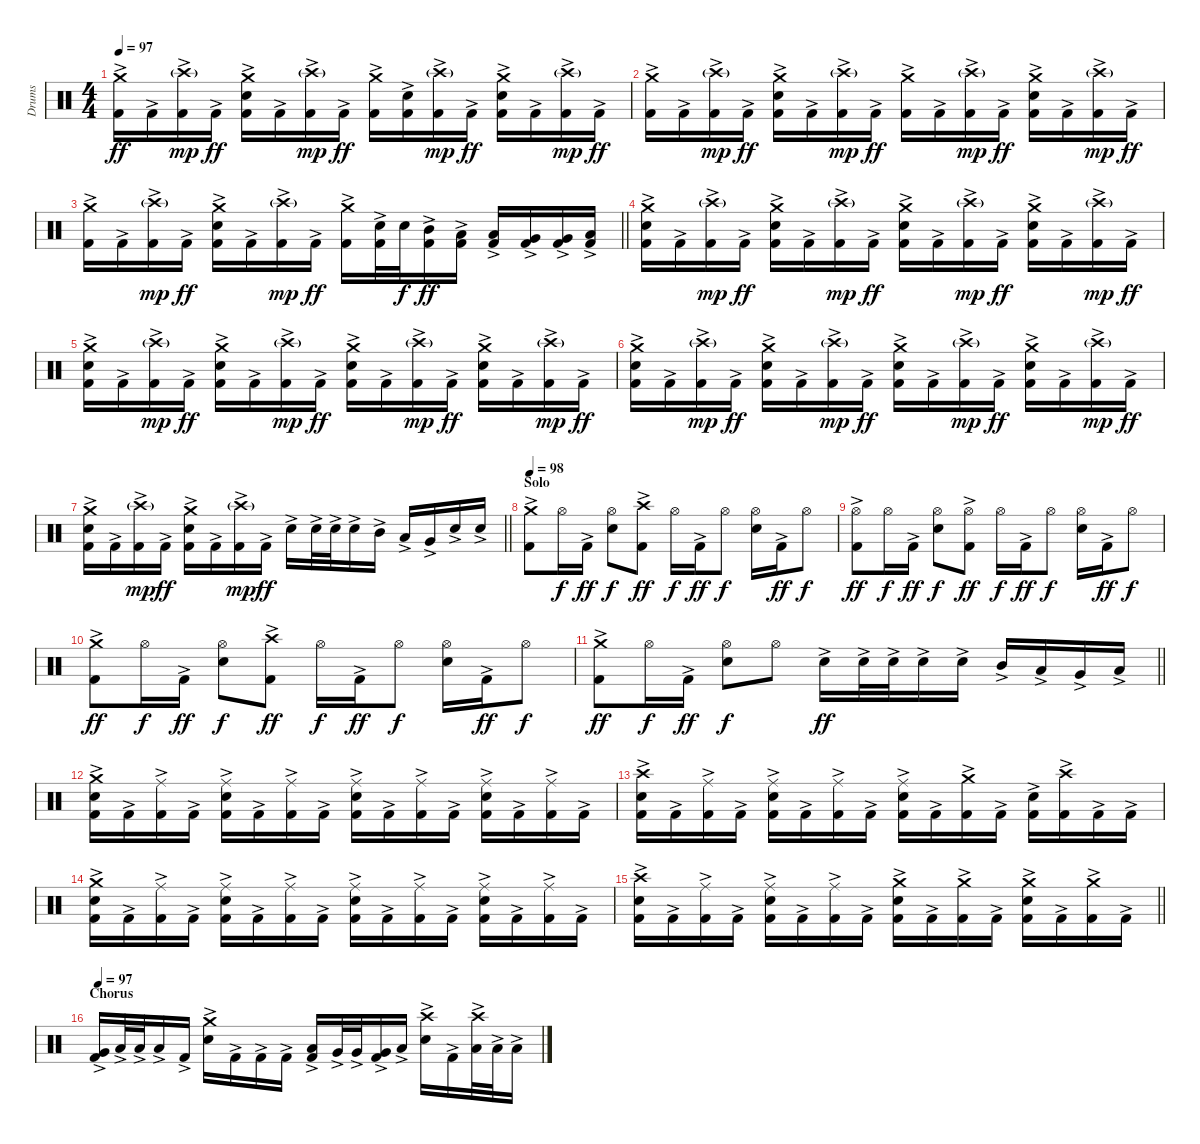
\track ("Drums" "Drums") {instrument percussion}
\staff {score}
\articulation defaults
\ts (4 4)
\tempo 97
\clef neutral
\ks c
("Kick (hit) 2"{ac} "Crash medium (hit)").16{dy ff} "Kick (hit) 2"{ac}.16 ("Kick (hit) 2"{ac} "Crash high (hit)"{g}).16{dy mp} "Kick (hit) 2"{ac}.16{dy ff} ("Kick (hit) 2"{ac} "Snare (hit) 2" "Crash medium (hit)").16 "Kick (hit) 2"{ac}.16 ("Kick (hit) 2"{ac} "Crash high (hit)"{g}).16{dy mp} "Kick (hit) 2"{ac}.16{dy ff} ("Kick (hit) 2"{ac} "Crash medium (hit)").16 ("Kick (hit) 2"{ac} "Snare (hit) 2").16 ("Kick (hit) 2"{ac} "Crash high (hit)"{g}).16{dy mp} "Kick (hit) 2"{ac}.16{dy ff} ("Kick (hit) 2"{ac} "Snare (hit) 2" "Crash medium (hit)").16 "Kick (hit) 2"{ac}.16 ("Kick (hit) 2"{ac} "Crash high (hit)"{g}).16{dy mp} "Kick (hit) 2"{ac}.16{dy ff} |
("Kick (hit) 2"{ac} "Crash medium (hit)").16 "Kick (hit) 2"{ac}.16 ("Kick (hit) 2"{ac} "Crash high (hit)"{g}).16{dy mp} "Kick (hit) 2"{ac}.16{dy ff} ("Kick (hit) 2"{ac} "Snare (hit) 2" "Crash medium (hit)").16 "Kick (hit) 2"{ac}.16 ("Kick (hit) 2"{ac} "Crash high (hit)"{g}).16{dy mp} "Kick (hit) 2"{ac}.16{dy ff} ("Kick (hit) 2"{ac} "Crash medium (hit)").16 "Kick (hit) 2"{ac}.16 ("Kick (hit) 2"{ac} "Crash high (hit)"{g}).16{dy mp} "Kick (hit) 2"{ac}.16{dy ff} ("Kick (hit) 2"{ac} "Snare (hit) 2" "Crash medium (hit)").16 "Kick (hit) 2"{ac}.16 ("Kick (hit) 2"{ac} "Crash high (hit)"{g}).16{dy mp} "Kick (hit) 2"{ac}.16{dy ff} |
\barLineRight lightlight
("Kick (hit) 2"{ac} "Crash medium (hit)").16 "Kick (hit) 2"{ac}.16 ("Kick (hit) 2"{ac} "Crash high (hit)"{g}).16{dy mp} "Kick (hit) 2"{ac}.16{dy ff} ("Kick (hit) 2"{ac} "Snare (hit) 2" "Crash medium (hit)").16 "Kick (hit) 2"{ac}.16 ("Kick (hit) 2"{ac} "Crash high (hit)"{g}).16{dy mp} "Kick (hit) 2"{ac}.16{dy ff} ("Kick (hit) 2"{ac} "Crash medium (hit)").16 ("Kick (hit) 2"{ac} "Snare (hit) 2").32 "Snare (hit) 2".32{dy f} ("Kick (hit) 2"{ac} "Mid Tom (hit)").16{dy ff} ("Kick (hit) 2"{ac} "Low Tom (hit)").16 ("Kick (hit) 2"{ac} "Low Tom (hit)").16 ("Kick (hit) 2"{ac} "Very Low Tom (hit)").16 ("Kick (hit) 2"{ac} "Very Low Tom (hit)").16 ("Kick (hit) 2"{ac} "Low Floor Tom (hit)").16 |
\section ("" "")
("Kick (hit) 2"{ac} "Snare (hit) 2" "Crash medium (hit)").16 "Kick (hit) 2"{ac}.16 ("Kick (hit) 2"{ac} "Crash high (hit)"{g}).16{dy mp} "Kick (hit) 2"{ac}.16{dy ff} ("Kick (hit) 2"{ac} "Snare (hit) 2" "Crash medium (hit)").16 "Kick (hit) 2"{ac}.16 ("Kick (hit) 2"{ac} "Crash high (hit)"{g}).16{dy mp} "Kick (hit) 2"{ac}.16{dy ff} ("Kick (hit) 2"{ac} "Snare (hit) 2" "Crash medium (hit)").16 "Kick (hit) 2"{ac}.16 ("Kick (hit) 2"{ac} "Crash high (hit)"{g}).16{dy mp} "Kick (hit) 2"{ac}.16{dy ff} ("Kick (hit) 2"{ac} "Snare (hit) 2" "Crash medium (hit)").16 "Kick (hit) 2"{ac}.16 ("Kick (hit) 2"{ac} "Crash high (hit)"{g}).16{dy mp} "Kick (hit) 2"{ac}.16{dy ff} |
("Kick (hit) 2"{ac} "Snare (hit) 2" "Crash medium (hit)").16 "Kick (hit) 2"{ac}.16 ("Kick (hit) 2"{ac} "Crash high (hit)"{g}).16{dy mp} "Kick (hit) 2"{ac}.16{dy ff} ("Kick (hit) 2"{ac} "Snare (hit) 2" "Crash medium (hit)").16 "Kick (hit) 2"{ac}.16 ("Kick (hit) 2"{ac} "Crash high (hit)"{g}).16{dy mp} "Kick (hit) 2"{ac}.16{dy ff} ("Kick (hit) 2"{ac} "Snare (hit) 2" "Crash medium (hit)").16 "Kick (hit) 2"{ac}.16 ("Kick (hit) 2"{ac} "Crash high (hit)"{g}).16{dy mp} "Kick (hit) 2"{ac}.16{dy ff} ("Kick (hit) 2"{ac} "Snare (hit) 2" "Crash medium (hit)").16 "Kick (hit) 2"{ac}.16 ("Kick (hit) 2"{ac} "Crash high (hit)"{g}).16{dy mp} "Kick (hit) 2"{ac}.16{dy ff} |
("Kick (hit) 2"{ac} "Snare (hit) 2" "Crash medium (hit)").16 "Kick (hit) 2"{ac}.16 ("Kick (hit) 2"{ac} "Crash high (hit)"{g}).16{dy mp} "Kick (hit) 2"{ac}.16{dy ff} ("Kick (hit) 2"{ac} "Snare (hit) 2" "Crash medium (hit)").16 "Kick (hit) 2"{ac}.16 ("Kick (hit) 2"{ac} "Crash high (hit)"{g}).16{dy mp} "Kick (hit) 2"{ac}.16{dy ff} ("Kick (hit) 2"{ac} "Snare (hit) 2" "Crash medium (hit)").16 "Kick (hit) 2"{ac}.16 ("Kick (hit) 2"{ac} "Crash high (hit)"{g}).16{dy mp} "Kick (hit) 2"{ac}.16{dy ff} ("Kick (hit) 2"{ac} "Snare (hit) 2" "Crash medium (hit)").16 "Kick (hit) 2"{ac}.16 ("Kick (hit) 2"{ac} "Crash high (hit)"{g}).16{dy mp} "Kick (hit) 2"{ac}.16{dy ff} |
\barLineRight lightlight
("Kick (hit) 2"{ac} "Snare (hit) 2" "Crash medium (hit)").16 "Kick (hit) 2"{ac}.16 ("Kick (hit) 2"{ac} "Crash high (hit)"{g}).16{dy mp} "Kick (hit) 2"{ac}.16{dy ff} ("Kick (hit) 2"{ac} "Snare (hit) 2" "Crash medium (hit)").16 "Kick (hit) 2"{ac}.16 ("Kick (hit) 2"{ac} "Crash high (hit)"{g}).16{dy mp} "Kick (hit) 2"{ac}.16{dy ff} "Snare (hit) 2"{ac}.16 "Snare (hit) 2"{ac}.32 "Snare (hit) 2"{ac}.32 "Snare (hit) 2"{ac}.16 "Mid Tom (hit)"{ac}.16 "Low Tom (hit)"{ac}.16 "Very Low Tom (hit)"{ac}.16 "Snare (hit) 2"{ac}.16 "Snare (hit) 2"{ac}.16 |
\section ("" "Solo")
\tempo 98
("Kick (hit) 2"{ac} "Crash medium (hit)").8 "Hi-Hat (open)".16{dy f} "Kick (hit) 2"{ac}.16{dy ff} ("Snare (hit) 2" "Hi-Hat (open)").8{dy f} ("Kick (hit) 2"{ac} "Crash high (hit)").8{dy ff} "Hi-Hat (open)".16{dy f} "Kick (hit) 2"{ac}.16{dy ff} "Hi-Hat (open)".8{dy f} ("Snare (hit) 2" "Hi-Hat (open)").16 "Kick (hit) 2"{ac}.16{dy ff} "Hi-Hat (open)".8{dy f} |
("Kick (hit) 2"{ac} "Hi-Hat (open)").8{dy ff} "Hi-Hat (open)".16{dy f} "Kick (hit) 2"{ac}.16{dy ff} ("Snare (hit) 2" "Hi-Hat (open)").8{dy f} ("Kick (hit) 2"{ac} "Hi-Hat (open)").8{dy ff} "Hi-Hat (open)".16{dy f} "Kick (hit) 2"{ac}.16{dy ff} "Hi-Hat (open)".8{dy f} ("Snare (hit) 2" "Hi-Hat (open)").16 "Kick (hit) 2"{ac}.16{dy ff} "Hi-Hat (open)".8{dy f} |
("Kick (hit) 2"{ac} "Crash medium (hit)").8{dy ff} "Hi-Hat (open)".16{dy f} "Kick (hit) 2"{ac}.16{dy ff} ("Snare (hit) 2" "Hi-Hat (open)").8{dy f} ("Kick (hit) 2"{ac} "Crash high (hit)").8{dy ff} "Hi-Hat (open)".16{dy f} "Kick (hit) 2"{ac}.16{dy ff} "Hi-Hat (open)".8{dy f} ("Snare (hit) 2" "Hi-Hat (open)").16 "Kick (hit) 2"{ac}.16{dy ff} "Hi-Hat (open)".8{dy f} |
\barLineRight lightlight
("Kick (hit) 2"{ac} "Crash medium (hit)").8{dy ff} "Hi-Hat (open)".16{dy f} "Kick (hit) 2"{ac}.16{dy ff} ("Snare (hit) 2" "Hi-Hat (open)").8{dy f} "Hi-Hat (open)".8 "Snare (hit) 2"{ac}.16{dy ff} "Snare (hit) 2"{ac}.32 "Snare (hit) 2"{ac}.32 "Snare (hit) 2"{ac}.16 "Snare (hit) 2"{ac}.16 "Mid Tom (hit)"{ac}.16 "Low Tom (hit)"{ac}.16 "Very Low Tom (hit)"{ac}.16 "Low Floor Tom (hit)"{ac}.16 |
\section ("" "")
("Kick (hit) 2"{ac} "Snare (hit) 2" "Crash medium (hit)").16 "Kick (hit) 2"{ac}.16 ("Kick (hit) 2"{ac} "Ride (middle)").16 "Kick (hit) 2"{ac}.16 ("Kick (hit) 2"{ac} "Snare (hit) 2" "Ride (middle)").16 "Kick (hit) 2"{ac}.16 ("Kick (hit) 2"{ac} "Ride (middle)").16 "Kick (hit) 2"{ac}.16 ("Kick (hit) 2"{ac} "Snare (hit) 2" "Ride (middle)").16 "Kick (hit) 2"{ac}.16 ("Kick (hit) 2"{ac} "Ride (middle)").16 "Kick (hit) 2"{ac}.16 ("Kick (hit) 2"{ac} "Snare (hit) 2" "Ride (middle)").16 "Kick (hit) 2"{ac}.16 ("Kick (hit) 2"{ac} "Ride (middle)").16 "Kick (hit) 2"{ac}.16 |
("Kick (hit) 2"{ac} "Snare (hit) 2" "Crash high (hit)").16 "Kick (hit) 2"{ac}.16 ("Kick (hit) 2"{ac} "Ride (middle)").16 "Kick (hit) 2"{ac}.16 ("Kick (hit) 2"{ac} "Snare (hit) 2" "Ride (middle)").16 "Kick (hit) 2"{ac}.16 ("Kick (hit) 2"{ac} "Ride (middle)").16 "Kick (hit) 2"{ac}.16 ("Kick (hit) 2"{ac} "Snare (hit) 2" "Ride (middle)").16 "Kick (hit) 2"{ac}.16 ("Kick (hit) 2"{ac} "Crash medium (hit)").16 "Kick (hit) 2"{ac}.16 ("Kick (hit) 2"{ac} "Snare (hit) 2").16 ("Kick (hit) 2"{ac} "Crash high (hit)").16 "Kick (hit) 2"{ac}.16 "Kick (hit) 2"{ac}.16 |
("Kick (hit) 2"{ac} "Snare (hit) 2" "Crash medium (hit)").16 "Kick (hit) 2"{ac}.16 ("Kick (hit) 2"{ac} "Ride (middle)").16 "Kick (hit) 2"{ac}.16 ("Kick (hit) 2"{ac} "Snare (hit) 2" "Ride (middle)").16 "Kick (hit) 2"{ac}.16 ("Kick (hit) 2"{ac} "Ride (middle)").16 "Kick (hit) 2"{ac}.16 ("Kick (hit) 2"{ac} "Snare (hit) 2" "Ride (middle)").16 "Kick (hit) 2"{ac}.16 ("Kick (hit) 2"{ac} "Ride (middle)").16 "Kick (hit) 2"{ac}.16 ("Kick (hit) 2"{ac} "Snare (hit) 2" "Ride (middle)").16 "Kick (hit) 2"{ac}.16 ("Kick (hit) 2"{ac} "Ride (middle)").16 "Kick (hit) 2"{ac}.16 |
\barLineRight lightlight
("Kick (hit) 2"{ac} "Snare (hit) 2" "Crash high (hit)").16 "Kick (hit) 2"{ac}.16 ("Kick (hit) 2"{ac} "Ride (middle)").16 "Kick (hit) 2"{ac}.16 ("Kick (hit) 2"{ac} "Snare (hit) 2" "Ride (middle)").16 "Kick (hit) 2"{ac}.16 ("Kick (hit) 2"{ac} "Ride (middle)").16 "Kick (hit) 2"{ac}.16 ("Kick (hit) 2"{ac} "Snare (hit) 2" "Crash medium (hit)").16 "Kick (hit) 2"{ac}.16 ("Kick (hit) 2"{ac} "Crash medium (hit)").16 "Kick (hit) 2"{ac}.16 ("Kick (hit) 2"{ac} "Snare (hit) 2" "Crash medium (hit)").16 "Kick (hit) 2"{ac}.16 ("Kick (hit) 2"{ac} "Crash medium (hit)").16 "Kick (hit) 2"{ac}.16 |
\section ("" "Chorus")
\tempo 97
("Kick (hit) 2"{ac} "Very Low Tom (hit)"{ac}).16 "Low Floor Tom (hit)"{ac}.32 "Low Floor Tom (hit)"{ac}.32 "Low Floor Tom (hit)"{ac}.16 "Kick (hit) 2"{ac}.16 ("Snare (hit) 2"{ac} "Crash medium (hit)").16 "Kick (hit) 2"{ac}.16 "Kick (hit) 2"{ac}.16 "Kick (hit) 2"{ac}.16 ("Kick (hit) 2"{ac} "Low Tom (hit)"{ac}).16 "Very Low Tom (hit)"{ac}.32 "Very Low Tom (hit)"{ac}.32 ("Kick (hit) 2"{ac} "Very Low Tom (hit)"{ac}).16 "Low Floor Tom (hit)"{ac}.16 ("Snare (hit) 2"{ac} "Crash high (hit)").16 "Kick (hit) 2"{ac}.16 ("Low Floor Tom (hit)"{ac} "Crash high (hit)").32 "Low Floor Tom (hit)"{ac}.32 "Low Floor Tom (hit)"{ac}.16
